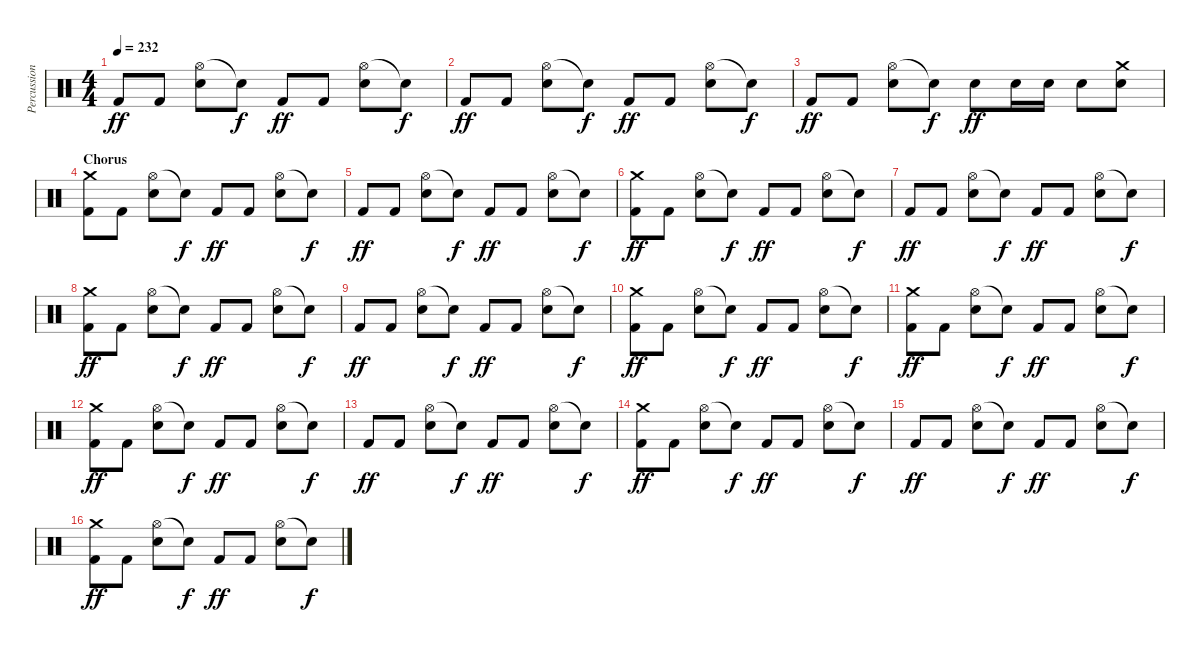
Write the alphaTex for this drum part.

\track ("Percussion" "Percussion") {instrument percussion}
\staff {score}
\articulation defaults
\ts (4 4)
\tempo 232
\clef neutral
\ks c "Kick (hit) 2".8{dy ff} "Kick (hit) 2".8
("Hi-Hat (open)" "Snare (hit) 2").8 "Snare (hit)"{t}.8{dy f} "Kick (hit) 2".8{dy ff} "Kick (hit) 2".8 ("Hi-Hat (open)" "Snare (hit) 2").8 "Snare (hit)"{t}.8{dy f} |
"Kick (hit) 2".8{dy ff} "Kick (hit) 2".8 ("Hi-Hat (open)" "Snare (hit) 2").8 "Snare (hit)"{t}.8{dy f} "Kick (hit) 2".8{dy ff} "Kick (hit) 2".8 ("Hi-Hat (open)" "Snare (hit) 2").8 "Snare (hit)"{t}.8{dy f} |
"Kick (hit) 2".8{dy ff} "Kick (hit) 2".8 ("Hi-Hat (open)" "Snare (hit) 2").8 "Snare (hit)"{t}.8{dy f} "Snare (hit) 2".8{dy ff} "Snare (hit) 2".16 "Snare (hit) 2".16 "Snare (hit) 2".8 ("Crash medium (hit)" "Snare (hit) 2").8 |
\section ("" "Chorus")
("Crash medium (hit)" "Kick (hit) 2").8 "Kick (hit) 2".8 ("Hi-Hat (open)" "Snare (hit) 2").8 "Snare (hit)"{t}.8{dy f} "Kick (hit) 2".8{dy ff} "Kick (hit) 2".8 ("Hi-Hat (open)" "Snare (hit) 2").8 "Snare (hit)"{t}.8{dy f} |
"Kick (hit) 2".8{dy ff} "Kick (hit) 2".8 ("Hi-Hat (open)" "Snare (hit) 2").8 "Snare (hit)"{t}.8{dy f} "Kick (hit) 2".8{dy ff} "Kick (hit) 2".8 ("Hi-Hat (open)" "Snare (hit) 2").8 "Snare (hit)"{t}.8{dy f} |
("Crash medium (hit)" "Kick (hit) 2").8{dy ff} "Kick (hit) 2".8 ("Hi-Hat (open)" "Snare (hit) 2").8 "Snare (hit)"{t}.8{dy f} "Kick (hit) 2".8{dy ff} "Kick (hit) 2".8 ("Hi-Hat (open)" "Snare (hit) 2").8 "Snare (hit)"{t}.8{dy f} |
"Kick (hit) 2".8{dy ff} "Kick (hit) 2".8 ("Hi-Hat (open)" "Snare (hit) 2").8 "Snare (hit)"{t}.8{dy f} "Kick (hit) 2".8{dy ff} "Kick (hit) 2".8 ("Hi-Hat (open)" "Snare (hit) 2").8 "Snare (hit)"{t}.8{dy f} |
("Crash medium (hit)" "Kick (hit) 2").8{dy ff} "Kick (hit) 2".8 ("Hi-Hat (open)" "Snare (hit) 2").8 "Snare (hit)"{t}.8{dy f} "Kick (hit) 2".8{dy ff} "Kick (hit) 2".8 ("Hi-Hat (open)" "Snare (hit) 2").8 "Snare (hit)"{t}.8{dy f} |
"Kick (hit) 2".8{dy ff} "Kick (hit) 2".8 ("Hi-Hat (open)" "Snare (hit) 2").8 "Snare (hit)"{t}.8{dy f} "Kick (hit) 2".8{dy ff} "Kick (hit) 2".8 ("Hi-Hat (open)" "Snare (hit) 2").8 "Snare (hit)"{t}.8{dy f} |
("Crash medium (hit)" "Kick (hit) 2").8{dy ff} "Kick (hit) 2".8 ("Hi-Hat (open)" "Snare (hit) 2").8 "Snare (hit)"{t}.8{dy f} "Kick (hit) 2".8{dy ff} "Kick (hit) 2".8 ("Hi-Hat (open)" "Snare (hit) 2").8 "Snare (hit)"{t}.8{dy f} |
("Crash medium (hit)" "Kick (hit) 2").8{dy ff} "Kick (hit) 2".8 ("Hi-Hat (open)" "Snare (hit) 2").8 "Snare (hit)"{t}.8{dy f} "Kick (hit) 2".8{dy ff} "Kick (hit) 2".8 ("Hi-Hat (open)" "Snare (hit) 2").8 "Snare (hit)"{t}.8{dy f} |
("Crash medium (hit)" "Kick (hit) 2").8{dy ff} "Kick (hit) 2".8 ("Hi-Hat (open)" "Snare (hit) 2").8 "Snare (hit)"{t}.8{dy f} "Kick (hit) 2".8{dy ff} "Kick (hit) 2".8 ("Hi-Hat (open)" "Snare (hit) 2").8 "Snare (hit)"{t}.8{dy f} |
"Kick (hit) 2".8{dy ff} "Kick (hit) 2".8 ("Hi-Hat (open)" "Snare (hit) 2").8 "Snare (hit)"{t}.8{dy f} "Kick (hit) 2".8{dy ff} "Kick (hit) 2".8 ("Hi-Hat (open)" "Snare (hit) 2").8 "Snare (hit)"{t}.8{dy f} |
("Crash medium (hit)" "Kick (hit) 2").8{dy ff} "Kick (hit) 2".8 ("Hi-Hat (open)" "Snare (hit) 2").8 "Snare (hit)"{t}.8{dy f} "Kick (hit) 2".8{dy ff} "Kick (hit) 2".8 ("Hi-Hat (open)" "Snare (hit) 2").8 "Snare (hit)"{t}.8{dy f} |
"Kick (hit) 2".8{dy ff} "Kick (hit) 2".8 ("Hi-Hat (open)" "Snare (hit) 2").8 "Snare (hit)"{t}.8{dy f} "Kick (hit) 2".8{dy ff} "Kick (hit) 2".8 ("Hi-Hat (open)" "Snare (hit) 2").8 "Snare (hit)"{t}.8{dy f} |
("Crash medium (hit)" "Kick (hit) 2").8{dy ff} "Kick (hit) 2".8 ("Hi-Hat (open)" "Snare (hit) 2").8 "Snare (hit)"{t}.8{dy f} "Kick (hit) 2".8{dy ff} "Kick (hit) 2".8 ("Hi-Hat (open)" "Snare (hit) 2").8 "Snare (hit)"{t}.8{dy f}
